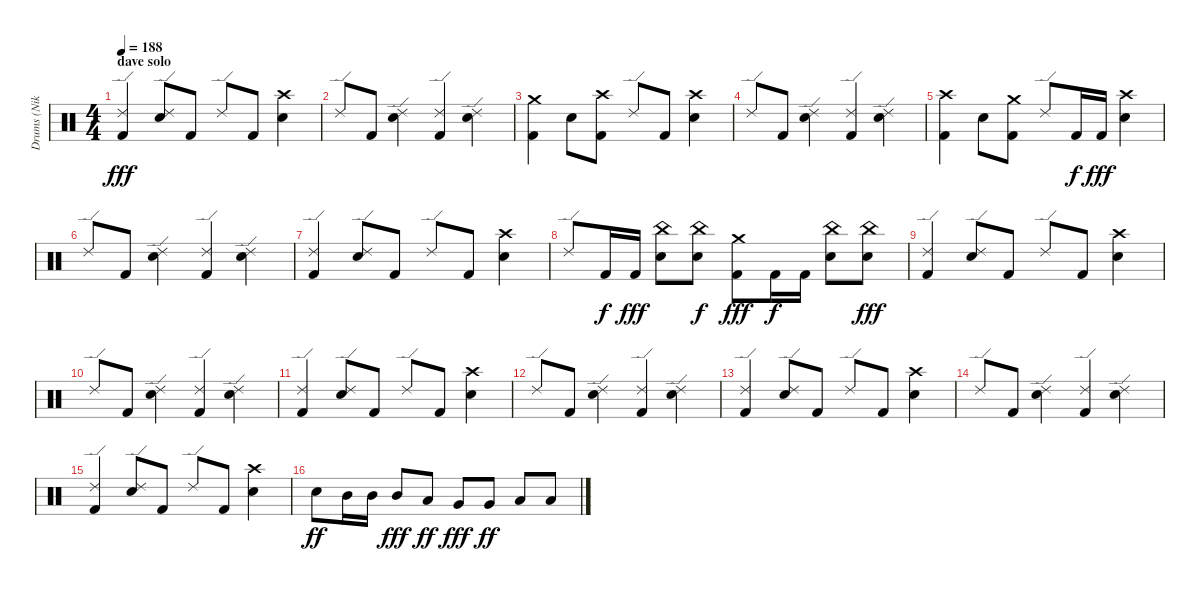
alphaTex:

\track ("Drums (Niko)" "Drums (Nik") {instrument percussion}
\staff {score}
\articulation defaults
\ts (4 4)
\section ("" "dave solo")
\tempo 188
\clef neutral
\ks c
("Ride (edge) 2" "Kick (hit) 2").4{dy fff} ("Ride (edge) 2" "Electric Snare (hit)").8 "Kick (hit) 2".8 "Ride (edge) 2".8 "Kick (hit) 2".8 ("Crash high (hit)" "Electric Snare (hit)").4 |
"Ride (edge) 2".8 "Kick (hit) 2".8 ("Ride (edge) 2" "Electric Snare (hit)").4 ("Ride (edge) 2" "Kick (hit) 2").4 ("Ride (edge) 2" "Electric Snare (hit)").4 |
("Crash medium (hit)" "Kick (hit) 2").4 "Electric Snare (hit)".8 ("Crash high (hit)" "Kick (hit) 2").8 "Ride (edge) 2".8 "Kick (hit) 2".8 ("Crash high (hit)" "Electric Snare (hit)").4 |
"Ride (edge) 2".8 "Kick (hit) 2".8 ("Ride (edge) 2" "Electric Snare (hit)").4 ("Ride (edge) 2" "Kick (hit) 2").4 ("Ride (edge) 2" "Electric Snare (hit)").4 |
("Crash high (hit)" "Kick (hit) 2").4 "Electric Snare (hit)".8 ("Crash medium (hit)" "Kick (hit) 2").8 "Ride (edge) 2".8 "Kick (hit) 2".16{dy f} "Kick (hit) 2".16{dy fff} ("Crash high (hit)" "Electric Snare (hit)").4 |
"Ride (edge) 2".8 "Kick (hit) 2".8 ("Ride (edge) 2" "Electric Snare (hit)").4 ("Ride (edge) 2" "Kick (hit) 2").4 ("Ride (edge) 2" "Electric Snare (hit)").4 |
("Ride (edge) 2" "Kick (hit) 2").4 ("Ride (edge) 2" "Electric Snare (hit)").8 "Kick (hit) 2".8 "Ride (edge) 2".8 "Kick (hit) 2".8 ("Crash high (hit)" "Electric Snare (hit)").4 |
"Ride (edge) 2".8 "Kick (hit) 2".16{dy f} "Kick (hit) 2".16{dy fff} ("China (hit)" "Electric Snare (hit)").8 ("China (hit)" "Electric Snare (hit)").8{dy f} ("Crash medium (hit)" "Kick (hit) 2").8{dy fff} "Kick (hit) 2".16{dy f} "Kick (hit) 2".16 ("China (hit)" "Electric Snare (hit)").8 ("China (hit)" "Electric Snare (hit)").8{dy fff} |
("Ride (edge) 2" "Kick (hit) 2").4 ("Ride (edge) 2" "Electric Snare (hit)").8 "Kick (hit) 2".8 "Ride (edge) 2".8 "Kick (hit) 2".8 ("Crash high (hit)" "Electric Snare (hit)").4 |
"Ride (edge) 2".8 "Kick (hit) 2".8 ("Ride (edge) 2" "Electric Snare (hit)").4 ("Ride (edge) 2" "Kick (hit) 2").4 ("Ride (edge) 2" "Electric Snare (hit)").4 |
("Ride (edge) 2" "Kick (hit) 2").4 ("Ride (edge) 2" "Electric Snare (hit)").8 "Kick (hit) 2".8 "Ride (edge) 2".8 "Kick (hit) 2".8 ("Crash high (hit)" "Electric Snare (hit)").4 |
"Ride (edge) 2".8 "Kick (hit) 2".8 ("Ride (edge) 2" "Electric Snare (hit)").4 ("Ride (edge) 2" "Kick (hit) 2").4 ("Ride (edge) 2" "Electric Snare (hit)").4 |
("Ride (edge) 2" "Kick (hit) 2").4 ("Ride (edge) 2" "Electric Snare (hit)").8 "Kick (hit) 2".8 "Ride (edge) 2".8 "Kick (hit) 2".8 ("Crash high (hit)" "Electric Snare (hit)").4 |
"Ride (edge) 2".8 "Kick (hit) 2".8 ("Ride (edge) 2" "Electric Snare (hit)").4 ("Ride (edge) 2" "Kick (hit) 2").4 ("Ride (edge) 2" "Electric Snare (hit)").4 |
("Ride (edge) 2" "Kick (hit) 2").4 ("Ride (edge) 2" "Electric Snare (hit)").8 "Kick (hit) 2".8 "Ride (edge) 2".8 "Kick (hit) 2".8 ("Crash high (hit)" "Electric Snare (hit)").4 |
"Electric Snare (hit)".8{dy ff} "Mid Tom (hit)".16 "Mid Tom (hit)".16 "Mid Tom (hit)".8{dy fff} "Low Tom (hit)".8{dy ff} "Very Low Tom (hit)".8{dy fff} "Very Low Tom (hit)".8{dy ff} "Low Floor Tom (hit)".8 "Low Floor Tom (hit)".8
